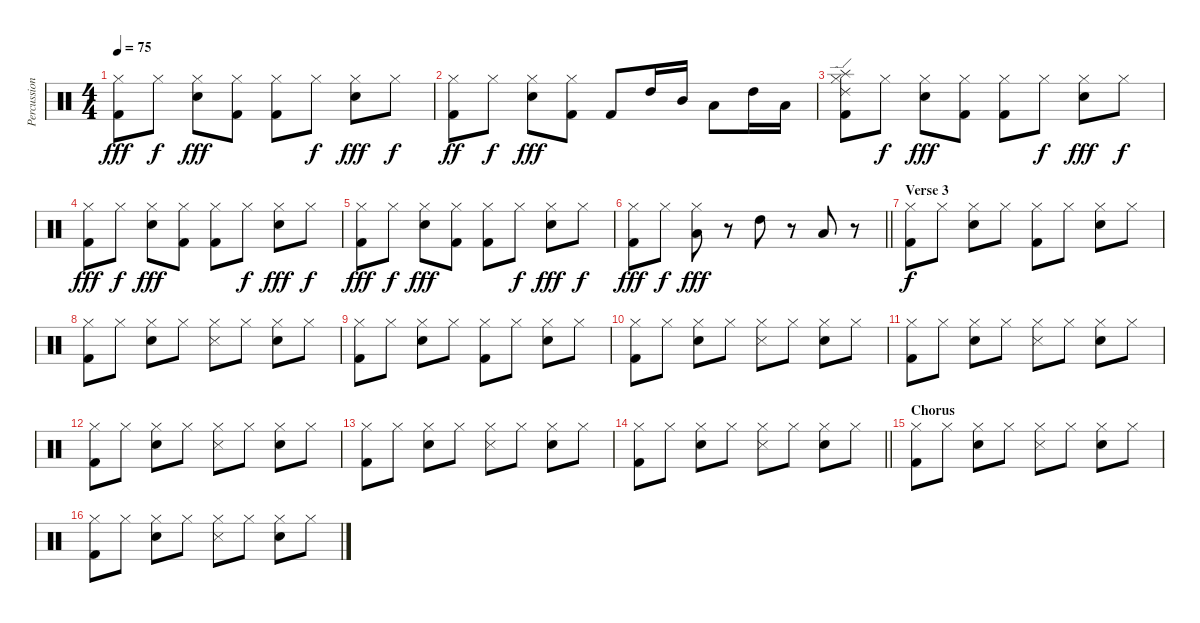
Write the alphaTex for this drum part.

\track ("Percussion" "Percussion") {instrument percussion}
\staff {score}
\articulation defaults
\ts (4 4)
\tempo 75
\clef neutral
\ks c
("Kick (hit) 2" "Hi-Hat (closed)").8{dy fff} "Hi-Hat (closed)".8{dy f} ("Snare (hit) 2" "Hi-Hat (closed)").8{dy fff} ("Kick (hit) 2" "Hi-Hat (closed)").8 ("Kick (hit) 2" "Hi-Hat (closed)").8 "Hi-Hat (closed)".8{dy f} ("Snare (hit) 2" "Hi-Hat (closed)").8{dy fff} "Hi-Hat (closed)".8{dy f} |
("Kick (hit) 2" "Hi-Hat (closed)").8{dy ff} "Hi-Hat (closed)".8{dy f} ("Snare (hit) 2" "Hi-Hat (closed)").8{dy fff} ("Kick (hit) 2" "Hi-Hat (closed)").8 "Kick (hit) 2".8 "High Tom (hit)".16 "Mid Tom (hit)".16 "Low Tom (hit)".8 "High Tom (hit)".16 "Low Tom (hit)".16 |
("Splash (hit)" "Kick (hit) 2" "Ride (edge) 2" "Hi-Hat (closed)").8 "Hi-Hat (closed)".8{dy f} ("Snare (hit) 2" "Hi-Hat (closed)").8{dy fff} ("Kick (hit) 2" "Hi-Hat (closed)").8 ("Kick (hit) 2" "Hi-Hat (closed)").8 "Hi-Hat (closed)".8{dy f} ("Snare (hit) 2" "Hi-Hat (closed)").8{dy fff} "Hi-Hat (closed)".8{dy f} |
("Kick (hit) 2" "Hi-Hat (closed)").8{dy fff} "Hi-Hat (closed)".8{dy f} ("Snare (hit) 2" "Hi-Hat (closed)").8{dy fff} ("Kick (hit) 2" "Hi-Hat (closed)").8 ("Kick (hit) 2" "Hi-Hat (closed)").8 "Hi-Hat (closed)".8{dy f} ("Snare (hit) 2" "Hi-Hat (closed)").8{dy fff} "Hi-Hat (closed)".8{dy f} |
("Kick (hit) 2" "Hi-Hat (closed)").8{dy fff} "Hi-Hat (closed)".8{dy f} ("Snare (hit) 2" "Hi-Hat (closed)").8{dy fff} ("Kick (hit) 2" "Hi-Hat (closed)").8 ("Kick (hit) 2" "Hi-Hat (closed)").8 "Hi-Hat (closed)".8{dy f} ("Snare (hit) 2" "Hi-Hat (closed)").8{dy fff} "Hi-Hat (closed)".8{dy f} |
\barLineRight lightlight
("Kick (hit) 2" "Hi-Hat (closed)").8{dy fff} "Hi-Hat (closed)".8{dy f} ("Low Tom (hit)" "Hi-Hat (closed)").8{dy fff} r.8 "High Tom (hit)".8 r.8 "Low Tom (hit)".8 r.8 |
\section ("" "Verse 3")
("Kick (hit) 2" "Hi-Hat (closed)").8{dy f} "Hi-Hat (closed)".8 ("Snare (hit) 2" "Hi-Hat (closed)").8 "Hi-Hat (closed)".8 ("Kick (hit) 2" "Hi-Hat (closed)").8 "Hi-Hat (closed)".8 ("Snare (hit) 2" "Hi-Hat (closed)").8 "Hi-Hat (closed)".8 |
("Kick (hit) 2" "Hi-Hat (closed)").8 "Hi-Hat (closed)".8 ("Snare (hit) 2" "Hi-Hat (closed)").8 "Hi-Hat (closed)".8 ("Snare (side stick) 3" "Hi-Hat (closed)").8 "Hi-Hat (closed)".8 ("Snare (hit) 2" "Hi-Hat (closed)").8 "Hi-Hat (closed)".8 |
("Kick (hit) 2" "Hi-Hat (closed)").8 "Hi-Hat (closed)".8 ("Snare (hit) 2" "Hi-Hat (closed)").8 "Hi-Hat (closed)".8 ("Kick (hit) 2" "Hi-Hat (closed)").8 "Hi-Hat (closed)".8 ("Snare (hit) 2" "Hi-Hat (closed)").8 "Hi-Hat (closed)".8 |
("Kick (hit) 2" "Hi-Hat (closed)").8 "Hi-Hat (closed)".8 ("Snare (hit) 2" "Hi-Hat (closed)").8 "Hi-Hat (closed)".8 ("Snare (side stick) 3" "Hi-Hat (closed)").8 "Hi-Hat (closed)".8 ("Snare (hit) 2" "Hi-Hat (closed)").8 "Hi-Hat (closed)".8 |
("Kick (hit) 2" "Hi-Hat (closed)").8 "Hi-Hat (closed)".8 ("Snare (hit) 2" "Hi-Hat (closed)").8 "Hi-Hat (closed)".8 ("Snare (side stick) 3" "Hi-Hat (closed)").8 "Hi-Hat (closed)".8 ("Snare (hit) 2" "Hi-Hat (closed)").8 "Hi-Hat (closed)".8 |
("Kick (hit) 2" "Hi-Hat (closed)").8 "Hi-Hat (closed)".8 ("Snare (hit) 2" "Hi-Hat (closed)").8 "Hi-Hat (closed)".8 ("Snare (side stick) 3" "Hi-Hat (closed)").8 "Hi-Hat (closed)".8 ("Snare (hit) 2" "Hi-Hat (closed)").8 "Hi-Hat (closed)".8 |
("Kick (hit) 2" "Hi-Hat (closed)").8 "Hi-Hat (closed)".8 ("Snare (hit) 2" "Hi-Hat (closed)").8 "Hi-Hat (closed)".8 ("Snare (side stick) 3" "Hi-Hat (closed)").8 "Hi-Hat (closed)".8 ("Snare (hit) 2" "Hi-Hat (closed)").8 "Hi-Hat (closed)".8 |
\barLineRight lightlight
("Kick (hit) 2" "Hi-Hat (closed)").8 "Hi-Hat (closed)".8 ("Snare (hit) 2" "Hi-Hat (closed)").8 "Hi-Hat (closed)".8 ("Snare (side stick) 3" "Hi-Hat (closed)").8 "Hi-Hat (closed)".8 ("Snare (hit) 2" "Hi-Hat (closed)").8 "Hi-Hat (closed)".8 |
\section ("" "Chorus")
("Kick (hit) 2" "Hi-Hat (closed)").8 "Hi-Hat (closed)".8 ("Snare (hit) 2" "Hi-Hat (closed)").8 "Hi-Hat (closed)".8 ("Snare (side stick) 3" "Hi-Hat (closed)").8 "Hi-Hat (closed)".8 ("Snare (hit) 2" "Hi-Hat (closed)").8 "Hi-Hat (closed)".8 |
("Kick (hit) 2" "Hi-Hat (closed)").8 "Hi-Hat (closed)".8 ("Snare (hit) 2" "Hi-Hat (closed)").8 "Hi-Hat (closed)".8 ("Snare (side stick) 3" "Hi-Hat (closed)").8 "Hi-Hat (closed)".8 ("Snare (hit) 2" "Hi-Hat (closed)").8 "Hi-Hat (closed)".8
